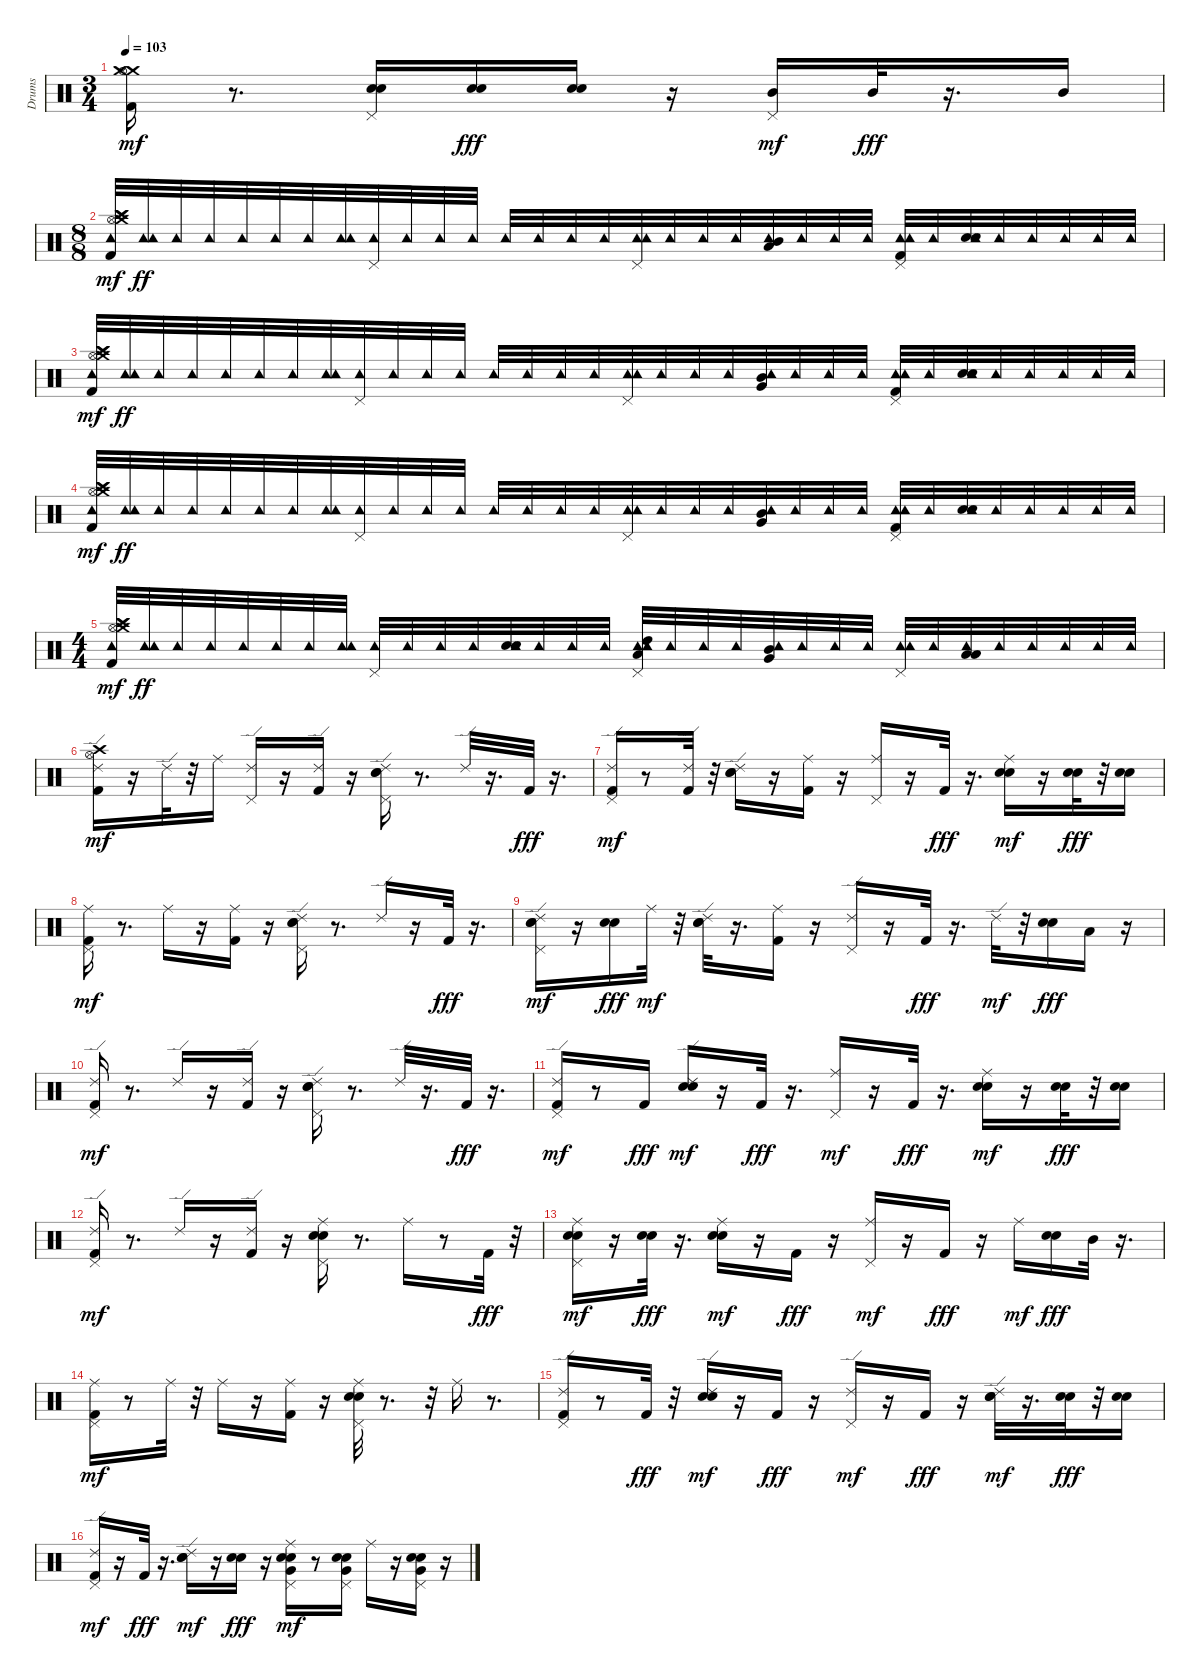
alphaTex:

\track ("Drums" "Drums") {instrument percussion}
\staff {score}
\articulation defaults
\ts (3 4)
\tempo 103
\clef neutral
\ks c
("Kick (hit) 2" "Crash medium (hit)" "Hi-Hat (open)" "Crash medium (hit)").16{dy mf} r.8{d} ("Electric Snare (hit)" "Snare (hit) 2" "Pedal Hi-Hat (hit)").16 ("Electric Snare (hit)" "Snare (hit) 2").16{dy fff} ("Electric Snare (hit)" "Snare (hit) 2").16 r.16 ("Mid Tom (hit)" "Pedal Hi-Hat (hit)").16{dy mf} "Mid Tom (hit)".32{dy fff} r.16{d} "Mid Tom (hit)".16 |
\ts (8 8)
("Crash high (hit)" "Kick (hit) 2" "Hi-Hat (open)" "Tambourine (hit)" "Crash high (hit)" "Crash medium (hit)").32{dy mf} ("Tambourine (hit)" "Tambourine (hit)").32{dy ff} "Tambourine (hit)".32 "Tambourine (hit)".32 "Tambourine (hit)".32 "Tambourine (hit)".32 "Tambourine (hit)".32 ("Tambourine (hit)" "Tambourine (hit)").32 ("Pedal Hi-Hat (hit)" "Tambourine (hit)").32 "Tambourine (hit)".32 "Tambourine (hit)".32 "Tambourine (hit)".32 "Tambourine (hit)".32 "Tambourine (hit)".32 "Tambourine (hit)".32 "Tambourine (hit)".32 ("Pedal Hi-Hat (hit)" "Tambourine (hit)" "Tambourine (hit)").32 "Tambourine (hit)".32 "Tambourine (hit)".32 "Tambourine (hit)".32 ("Low Tom (hit)" "Mid Tom (hit)" "Tambourine (hit)").32 "Tambourine (hit)".32 "Tambourine (hit)".32 "Tambourine (hit)".32 ("Kick (hit) 2" "Pedal Hi-Hat (hit)" "Tambourine (hit)" "Tambourine (hit)").32 "Tambourine (hit)".32 ("Electric Snare (hit)" "Snare (hit) 2" "Tambourine (hit)").32 "Tambourine (hit)".32 "Tambourine (hit)".32 "Tambourine (hit)".32 "Tambourine (hit)".32 "Tambourine (hit)".32 |
("Kick (hit) 2" "Crash high (hit)" "Hi-Hat (open)" "Tambourine (hit)" "Crash medium (hit)" "Crash high (hit)").32{dy mf} ("Tambourine (hit)" "Tambourine (hit)").32{dy ff} "Tambourine (hit)".32 "Tambourine (hit)".32 "Tambourine (hit)".32 "Tambourine (hit)".32 "Tambourine (hit)".32 ("Tambourine (hit)" "Tambourine (hit)").32 ("Pedal Hi-Hat (hit)" "Tambourine (hit)").32 "Tambourine (hit)".32 "Tambourine (hit)".32 "Tambourine (hit)".32 "Tambourine (hit)".32 "Tambourine (hit)".32 "Tambourine (hit)".32 "Tambourine (hit)".32 ("Pedal Hi-Hat (hit)" "Tambourine (hit)" "Tambourine (hit)").32 "Tambourine (hit)".32 "Tambourine (hit)".32 "Tambourine (hit)".32 ("Mid Tom (hit)" "Very Low Tom (hit)" "Tambourine (hit)").32 "Tambourine (hit)".32 "Tambourine (hit)".32 "Tambourine (hit)".32 ("Kick (hit) 2" "Pedal Hi-Hat (hit)" "Tambourine (hit)" "Tambourine (hit)").32 "Tambourine (hit)".32 ("Electric Snare (hit)" "Snare (hit) 2" "Tambourine (hit)").32 "Tambourine (hit)".32 "Tambourine (hit)".32 "Tambourine (hit)".32 "Tambourine (hit)".32 "Tambourine (hit)".32 |
("Crash high (hit)" "Kick (hit) 2" "Hi-Hat (open)" "Tambourine (hit)" "Crash high (hit)" "Crash medium (hit)").32{dy mf} ("Tambourine (hit)" "Tambourine (hit)").32{dy ff} "Tambourine (hit)".32 "Tambourine (hit)".32 "Tambourine (hit)".32 "Tambourine (hit)".32 "Tambourine (hit)".32 ("Tambourine (hit)" "Tambourine (hit)").32 ("Pedal Hi-Hat (hit)" "Tambourine (hit)").32 "Tambourine (hit)".32 "Tambourine (hit)".32 "Tambourine (hit)".32 "Tambourine (hit)".32 "Tambourine (hit)".32 "Tambourine (hit)".32 "Tambourine (hit)".32 ("Pedal Hi-Hat (hit)" "Tambourine (hit)" "Tambourine (hit)").32 "Tambourine (hit)".32 "Tambourine (hit)".32 "Tambourine (hit)".32 ("Mid Tom (hit)" "Very Low Tom (hit)" "Tambourine (hit)").32 "Tambourine (hit)".32 "Tambourine (hit)".32 "Tambourine (hit)".32 ("Kick (hit) 2" "Pedal Hi-Hat (hit)" "Tambourine (hit)" "Tambourine (hit)").32 "Tambourine (hit)".32 ("Electric Snare (hit)" "Snare (hit) 2" "Tambourine (hit)").32 "Tambourine (hit)".32 "Tambourine (hit)".32 "Tambourine (hit)".32 "Tambourine (hit)".32 "Tambourine (hit)".32 |
\ts (4 4)
("Crash high (hit)" "Kick (hit) 2" "Hi-Hat (open)" "Tambourine (hit)" "Crash medium (hit)" "Crash high (hit)").32{dy mf} ("Tambourine (hit)" "Tambourine (hit)").32{dy ff} "Tambourine (hit)".32 "Tambourine (hit)".32 "Tambourine (hit)".32 "Tambourine (hit)".32 "Tambourine (hit)".32 ("Tambourine (hit)" "Tambourine (hit)").32 ("Pedal Hi-Hat (hit)" "Tambourine (hit)").32 "Tambourine (hit)".32 "Tambourine (hit)".32 "Tambourine (hit)".32 ("Electric Snare (hit)" "Snare (hit) 2" "Tambourine (hit)").32 "Tambourine (hit)".32 "Tambourine (hit)".32 "Tambourine (hit)".32 ("High Tom (hit)" "Low Tom (hit)" "Pedal Hi-Hat (hit)" "Tambourine (hit)" "Tambourine (hit)").32 "Tambourine (hit)".32 "Tambourine (hit)".32 "Tambourine (hit)".32 ("Mid Tom (hit)" "Very Low Tom (hit)" "Tambourine (hit)").32 "Tambourine (hit)".32 "Tambourine (hit)".32 "Tambourine (hit)".32 ("Pedal Hi-Hat (hit)" "Tambourine (hit)" "Tambourine (hit)").32 "Tambourine (hit)".32 ("Low Floor Tom (hit)" "Low Tom (hit)" "Tambourine (hit)").32 "Tambourine (hit)".32 "Tambourine (hit)".32 "Tambourine (hit)".32 "Tambourine (hit)".32 "Tambourine (hit)".32 |
("Crash high (hit)" "Kick (hit) 2" "Hi-Hat (open)" "Ride (edge) 2").16{dy mf} r.16 "Ride (edge) 2".32 r.32 "Ride (middle)".16 ("Pedal Hi-Hat (hit)" "Ride (edge) 2").16 r.16 ("Kick (hit) 2" "Ride (edge) 2").16 r.16 ("Electric Snare (hit)" "Snare (hit) 2" "Pedal Hi-Hat (hit)" "Ride (edge) 2").16 r.8{d} "Ride (edge) 2".32 r.16{d} "Kick (hit) 2".32{dy fff} r.16{d} |
("Kick (hit) 2" "Pedal Hi-Hat (hit)" "Ride (edge) 2").16{dy mf} r.8 ("Kick (hit) 2" "Ride (edge) 2").32 r.32 ("Electric Snare (hit)" "Snare (hit) 2" "Ride (edge) 2").16 r.16 ("Kick (hit) 2" "Ride (middle)").16 r.16 ("Pedal Hi-Hat (hit)" "Ride (middle)").16 r.16 "Kick (hit) 2".32{dy fff} r.16{d} ("Electric Snare (hit)" "Snare (hit) 2" "Ride (middle)").16{dy mf} r.16 ("Electric Snare (hit)" "Snare (hit) 2").32{dy fff} r.32 ("Electric Snare (hit)" "Snare (hit) 2").16 |
("Kick (hit) 2" "Pedal Hi-Hat (hit)" "Ride (middle)").16{dy mf} r.8{d} "Ride (middle)".16 r.16 ("Kick (hit) 2" "Ride (middle)").16 r.16 ("Electric Snare (hit)" "Snare (hit) 2" "Pedal Hi-Hat (hit)" "Ride (edge) 2").16 r.8{d} "Ride (edge) 2".16 r.16 "Kick (hit) 2".32{dy fff} r.16{d} |
("Electric Snare (hit)" "Snare (hit) 2" "Pedal Hi-Hat (hit)" "Ride (edge) 2").16{dy mf} r.16 ("Electric Snare (hit)" "Snare (hit) 2").16{dy fff} "Ride (middle)".32{dy mf} r.32 ("Electric Snare (hit)" "Snare (hit) 2" "Ride (edge) 2").32 r.16{d} ("Kick (hit) 2" "Ride (middle)").16 r.16 ("Pedal Hi-Hat (hit)" "Ride (edge) 2").16 r.16 "Kick (hit) 2".32{dy fff} r.16{d} "Ride (edge) 2".32{dy mf} r.32 ("Electric Snare (hit)" "Snare (hit) 2").16{dy fff} "Low Tom (hit)".16 r.16 |
("Kick (hit) 2" "Pedal Hi-Hat (hit)" "Ride (edge) 2").16{dy mf} r.8{d} "Ride (edge) 2".16 r.16 ("Kick (hit) 2" "Ride (edge) 2").16 r.16 ("Electric Snare (hit)" "Snare (hit) 2" "Pedal Hi-Hat (hit)" "Ride (edge) 2").16 r.8{d} "Ride (edge) 2".32 r.16{d} "Kick (hit) 2".32{dy fff} r.16{d} |
("Kick (hit) 2" "Pedal Hi-Hat (hit)" "Ride (edge) 2").16{dy mf} r.8 "Kick (hit) 2".16{dy fff} ("Electric Snare (hit)" "Snare (hit) 2" "Ride (edge) 2").16{dy mf} r.16 "Kick (hit) 2".32{dy fff} r.16{d} ("Pedal Hi-Hat (hit)" "Ride (middle)").16{dy mf} r.16 "Kick (hit) 2".32{dy fff} r.16{d} ("Electric Snare (hit)" "Snare (hit) 2" "Ride (middle)").16{dy mf} r.16 ("Electric Snare (hit)" "Snare (hit) 2").32{dy fff} r.32 ("Electric Snare (hit)" "Snare (hit) 2").16 |
("Kick (hit) 2" "Pedal Hi-Hat (hit)" "Ride (edge) 2").16{dy mf} r.8{d} "Ride (edge) 2".16 r.16 ("Kick (hit) 2" "Ride (edge) 2").16 r.16 ("Electric Snare (hit)" "Snare (hit) 2" "Pedal Hi-Hat (hit)" "Ride (middle)").16 r.8{d} "Ride (middle)".16 r.8 "Kick (hit) 2".32{dy fff} r.32 |
("Electric Snare (hit)" "Snare (hit) 2" "Pedal Hi-Hat (hit)" "Ride (middle)").16{dy mf} r.16 ("Electric Snare (hit)" "Snare (hit) 2").32{dy fff} r.16{d} ("Electric Snare (hit)" "Snare (hit) 2" "Ride (middle)").16{dy mf} r.16 "Kick (hit) 2".16{dy fff} r.16 ("Pedal Hi-Hat (hit)" "Ride (middle)").16{dy mf} r.16 "Kick (hit) 2".16{dy fff} r.16 "Ride (middle)".16{dy mf} ("Electric Snare (hit)" "Snare (hit) 2").16{dy fff} "Mid Tom (hit)".32 r.16{d} |
("Kick (hit) 2" "Pedal Hi-Hat (hit)" "Ride (middle)").16{dy mf} r.8 "Ride (middle)".32 r.32 "Ride (middle)".16 r.16 ("Kick (hit) 2" "Ride (middle)").16 r.16 ("Electric Snare (hit)" "Snare (hit) 2" "Pedal Hi-Hat (hit)" "Ride (middle)").32 r.8{d} r.32 "Ride (middle)".16 r.8{d} |
("Kick (hit) 2" "Pedal Hi-Hat (hit)" "Ride (edge) 2").16 r.8 "Kick (hit) 2".32{dy fff} r.32 ("Electric Snare (hit)" "Snare (hit) 2" "Ride (edge) 2").16{dy mf} r.16 "Kick (hit) 2".16{dy fff} r.16 ("Pedal Hi-Hat (hit)" "Ride (edge) 2").16{dy mf} r.16 "Kick (hit) 2".16{dy fff} r.16 ("Electric Snare (hit)" "Snare (hit) 2" "Ride (edge) 2").32{dy mf} r.16{d} ("Electric Snare (hit)" "Snare (hit) 2").32{dy fff} r.32 ("Electric Snare (hit)" "Snare (hit) 2").16 |
("Kick (hit) 2" "Pedal Hi-Hat (hit)" "Ride (edge) 2").16{dy mf} r.16 "Kick (hit) 2".32{dy fff} r.16{d} ("Electric Snare (hit)" "Snare (hit) 2" "Ride (edge) 2").16{dy mf} r.16 ("Electric Snare (hit)" "Snare (hit) 2").16{dy fff} r.16 ("Electric Snare (hit)" "Very Low Tom (hit)" "Snare (hit) 2" "Pedal Hi-Hat (hit)" "Ride (middle)").16{dy mf} r.8 ("Electric Snare (hit)" "Very Low Tom (hit)" "Snare (hit) 2" "Pedal Hi-Hat (hit)").16 "Ride (middle)".16 r.16 ("Electric Snare (hit)" "Very Low Tom (hit)" "Snare (hit) 2" "Pedal Hi-Hat (hit)").16 r.16
